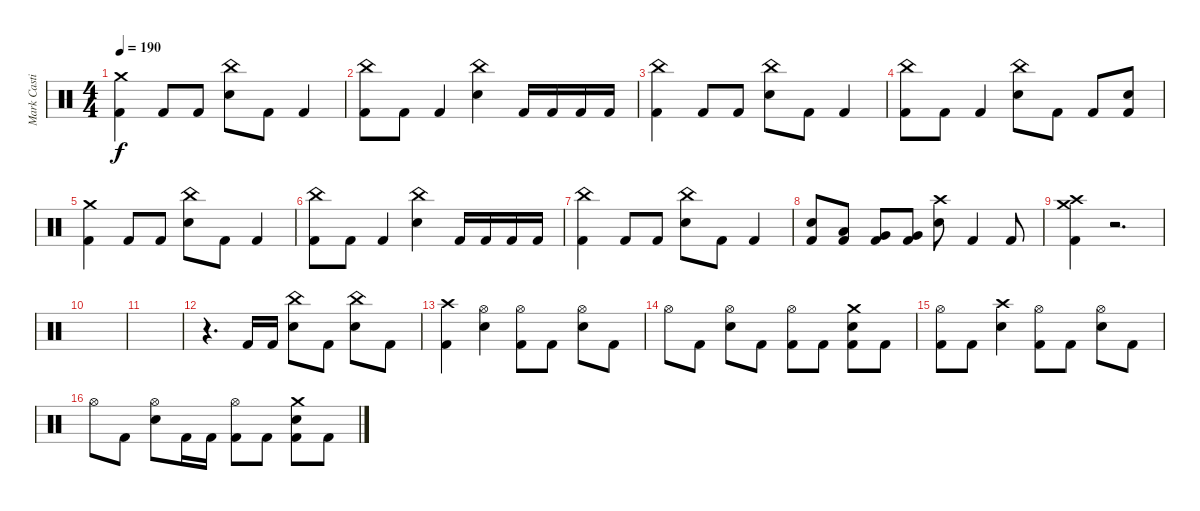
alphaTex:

\track ("Mark Castillo" "Mark Casti") {instrument percussion}
\staff {score}
\articulation defaults
\ts (4 4)
\tempo 190
\clef neutral
\ks c
("Crash medium (hit)" "Kick (hit) 2").4{dy f} "Kick (hit) 2".8 "Kick (hit) 2".8 ("China (hit)" "Electric Snare (hit)").8 "Kick (hit) 2".8 "Kick (hit) 2".4 |
("China (hit)" "Kick (hit) 2").8 "Kick (hit) 2".8 "Kick (hit) 2".4 ("China (hit)" "Electric Snare (hit)").4 "Kick (hit) 2".16 "Kick (hit) 2".16 "Kick (hit) 2".16 "Kick (hit) 2".16 |
("China (hit)" "Kick (hit) 2").4 "Kick (hit) 2".8 "Kick (hit) 2".8 ("China (hit)" "Electric Snare (hit)").8 "Kick (hit) 2".8 "Kick (hit) 2".4 |
("China (hit)" "Kick (hit) 2").8 "Kick (hit) 2".8 "Kick (hit) 2".4 ("China (hit)" "Electric Snare (hit)").8 "Kick (hit) 2".8 "Kick (hit) 2".8 ("Electric Snare (hit)" "Kick (hit) 2").8 |
("Crash medium (hit)" "Kick (hit) 2").4 "Kick (hit) 2".8 "Kick (hit) 2".8 ("China (hit)" "Electric Snare (hit)").8 "Kick (hit) 2".8 "Kick (hit) 2".4 |
("China (hit)" "Kick (hit) 2").8 "Kick (hit) 2".8 "Kick (hit) 2".4 ("China (hit)" "Electric Snare (hit)").4 "Kick (hit) 2".16 "Kick (hit) 2".16 "Kick (hit) 2".16 "Kick (hit) 2".16 |
("China (hit)" "Kick (hit) 2").4 "Kick (hit) 2".8 "Kick (hit) 2".8 ("China (hit)" "Electric Snare (hit)").8 "Kick (hit) 2".8 "Kick (hit) 2".4 |
("Electric Snare (hit)" "Kick (hit) 2").8 ("Low Tom (hit)" "Kick (hit) 2").8 ("Very Low Tom (hit)" "Kick (hit) 2").8 ("Very Low Tom (hit)" "Kick (hit) 2").8 ("Crash high (hit)" "Electric Snare (hit)").8 "Kick (hit) 2".4 "Kick (hit) 2".8 |
("Crash high (hit)" "Crash medium (hit)" "Kick (hit) 2").4 r.2{d volume 0} |
|
|
r.4{d} "Kick (hit) 2".16{volume 13} "Kick (hit) 2".16 ("China (hit)" "Electric Snare (hit)").8 "Kick (hit) 2".8 ("China (hit)" "Electric Snare (hit)").8 "Kick (hit) 2".8 |
("Crash high (hit)" "Kick (hit) 2").4 ("Hi-Hat (open)" "Electric Snare (hit)").4 ("Hi-Hat (open)" "Kick (hit) 2").8 "Kick (hit) 2".8 ("Hi-Hat (open)" "Electric Snare (hit)").8 "Kick (hit) 2".8 |
"Hi-Hat (open)".8 "Kick (hit) 2".8 ("Hi-Hat (open)" "Electric Snare (hit)").8 "Kick (hit) 2".8 ("Hi-Hat (open)" "Kick (hit) 2").8 "Kick (hit) 2".8 ("Crash medium (hit)" "Electric Snare (hit)" "Kick (hit) 2").8 "Kick (hit) 2".8 |
("Hi-Hat (open)" "Kick (hit) 2").8 "Kick (hit) 2".8 ("Crash high (hit)" "Electric Snare (hit)").4 ("Hi-Hat (open)" "Kick (hit) 2").8 "Kick (hit) 2".8 ("Hi-Hat (open)" "Electric Snare (hit)").8 "Kick (hit) 2".8 |
"Hi-Hat (open)".8 "Kick (hit) 2".8 ("Hi-Hat (open)" "Electric Snare (hit)").8 "Kick (hit) 2".16 "Kick (hit) 2".16 ("Hi-Hat (open)" "Kick (hit) 2").8 "Kick (hit) 2".8 ("Crash medium (hit)" "Electric Snare (hit)" "Kick (hit) 2").8 "Kick (hit) 2".8
